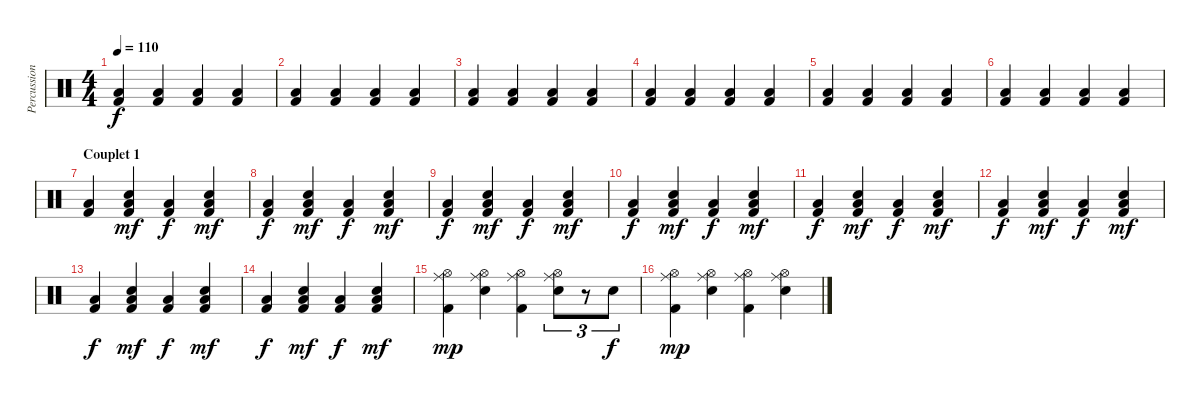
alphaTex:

\track ("Percussions" "Percussion") {instrument percussion}
\staff {score}
\articulation defaults
\ts (4 4)
\tempo 110
\clef neutral
\ks c
("Kick (hit) 2" "Low Floor Tom (hit)").4{dy f} ("Kick (hit) 2" "Low Floor Tom (hit)").4 ("Kick (hit) 2" "Low Floor Tom (hit)").4 ("Kick (hit) 2" "Low Floor Tom (hit)").4 |
("Kick (hit) 2" "Low Floor Tom (hit)").4 ("Kick (hit) 2" "Low Floor Tom (hit)").4 ("Kick (hit) 2" "Low Floor Tom (hit)").4 ("Kick (hit) 2" "Low Floor Tom (hit)").4 |
("Kick (hit) 2" "Low Floor Tom (hit)").4 ("Kick (hit) 2" "Low Floor Tom (hit)").4 ("Kick (hit) 2" "Low Floor Tom (hit)").4 ("Kick (hit) 2" "Low Floor Tom (hit)").4 |
("Kick (hit) 2" "Low Floor Tom (hit)").4 ("Kick (hit) 2" "Low Floor Tom (hit)").4 ("Kick (hit) 2" "Low Floor Tom (hit)").4 ("Kick (hit) 2" "Low Floor Tom (hit)").4 |
("Kick (hit) 2" "Low Floor Tom (hit)").4 ("Kick (hit) 2" "Low Floor Tom (hit)").4 ("Kick (hit) 2" "Low Floor Tom (hit)").4 ("Kick (hit) 2" "Low Floor Tom (hit)").4 |
("Kick (hit) 2" "Low Floor Tom (hit)").4 ("Kick (hit) 2" "Low Floor Tom (hit)").4 ("Kick (hit) 2" "Low Floor Tom (hit)").4 ("Kick (hit) 2" "Low Floor Tom (hit)").4 |
\section ("" "Couplet 1")
("Kick (hit) 2" "Low Floor Tom (hit)").4 ("Snare (hit) 2" "Kick (hit) 2" "Low Floor Tom (hit)").4{dy mf} ("Kick (hit) 2" "Low Floor Tom (hit)").4{dy f} ("Snare (hit) 2" "Kick (hit) 2" "Low Floor Tom (hit)").4{dy mf} |
("Kick (hit) 2" "Low Floor Tom (hit)").4{dy f} ("Snare (hit) 2" "Kick (hit) 2" "Low Floor Tom (hit)").4{dy mf} ("Kick (hit) 2" "Low Floor Tom (hit)").4{dy f} ("Snare (hit) 2" "Kick (hit) 2" "Low Floor Tom (hit)").4{dy mf} |
("Kick (hit) 2" "Low Floor Tom (hit)").4{dy f} ("Snare (hit) 2" "Kick (hit) 2" "Low Floor Tom (hit)").4{dy mf} ("Kick (hit) 2" "Low Floor Tom (hit)").4{dy f} ("Snare (hit) 2" "Kick (hit) 2" "Low Floor Tom (hit)").4{dy mf} |
("Kick (hit) 2" "Low Floor Tom (hit)").4{dy f} ("Snare (hit) 2" "Kick (hit) 2" "Low Floor Tom (hit)").4{dy mf} ("Kick (hit) 2" "Low Floor Tom (hit)").4{dy f} ("Snare (hit) 2" "Kick (hit) 2" "Low Floor Tom (hit)").4{dy mf} |
("Kick (hit) 2" "Low Floor Tom (hit)").4{dy f} ("Snare (hit) 2" "Kick (hit) 2" "Low Floor Tom (hit)").4{dy mf} ("Kick (hit) 2" "Low Floor Tom (hit)").4{dy f} ("Snare (hit) 2" "Kick (hit) 2" "Low Floor Tom (hit)").4{dy mf} |
("Kick (hit) 2" "Low Floor Tom (hit)").4{dy f} ("Snare (hit) 2" "Kick (hit) 2" "Low Floor Tom (hit)").4{dy mf} ("Kick (hit) 2" "Low Floor Tom (hit)").4{dy f} ("Snare (hit) 2" "Kick (hit) 2" "Low Floor Tom (hit)").4{dy mf} |
("Kick (hit) 2" "Low Floor Tom (hit)").4{dy f} ("Snare (hit) 2" "Kick (hit) 2" "Low Floor Tom (hit)").4{dy mf} ("Kick (hit) 2" "Low Floor Tom (hit)").4{dy f} ("Snare (hit) 2" "Kick (hit) 2" "Low Floor Tom (hit)").4{dy mf} |
("Kick (hit) 2" "Low Floor Tom (hit)").4{dy f} ("Snare (hit) 2" "Kick (hit) 2" "Low Floor Tom (hit)").4{dy mf} ("Kick (hit) 2" "Low Floor Tom (hit)").4{dy f} ("Snare (hit) 2" "Kick (hit) 2" "Low Floor Tom (hit)").4{dy mf} |
("Ride (middle)" "Hi-Hat (open)" "Kick (hit) 2").4{dy mp} ("Ride (middle)" "Hi-Hat (open)" "Electric Snare (hit)").4 ("Ride (middle)" "Hi-Hat (open)" "Kick (hit) 2").4 ("Ride (middle)" "Hi-Hat (open)" "Electric Snare (hit)").8{tu (3 2)} r.8{tu (3 2)} "Electric Snare (hit)".8{tu (3 2) dy f} |
("Ride (middle)" "Hi-Hat (open)" "Kick (hit) 2").4{dy mp} ("Ride (middle)" "Hi-Hat (open)" "Electric Snare (hit)").4 ("Ride (middle)" "Hi-Hat (open)" "Kick (hit) 2").4 ("Ride (middle)" "Hi-Hat (open)" "Electric Snare (hit)").4
